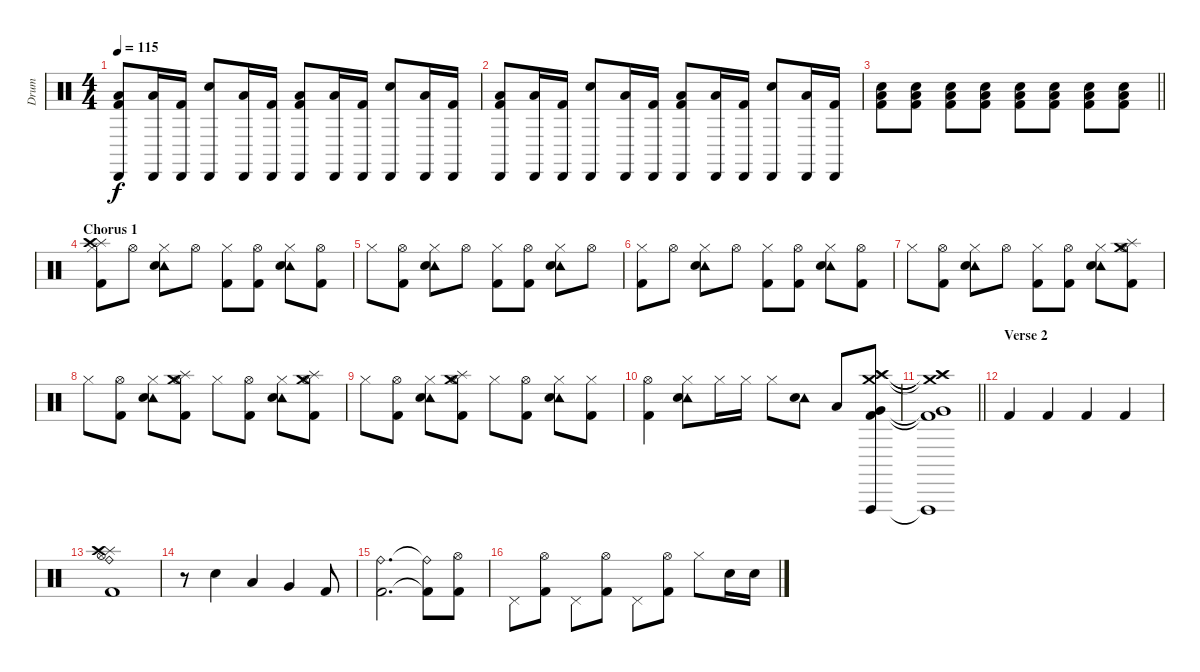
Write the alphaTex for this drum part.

\track ("Drum" "Drum") {instrument percussion}
\staff {score}
\articulation defaults
\ts (4 4)
\tempo 115
\clef neutral
\ks c
("Cabasa (hit)" "Low Tom (hit)" "Kick (hit) 2").8{dy f} ("Cabasa (hit)" "Low Tom (hit)").16 ("Cabasa (hit)" "Kick (hit) 2").16 ("Cabasa (hit)" "Electric Snare (hit)").8 ("Cabasa (hit)" "Low Tom (hit)").16 ("Cabasa (hit)" "Kick (hit) 2").16 ("Cabasa (hit)" "Low Tom (hit)" "Kick (hit) 2").8 ("Cabasa (hit)" "Low Tom (hit)").16 ("Cabasa (hit)" "Kick (hit) 2").16 ("Cabasa (hit)" "Electric Snare (hit)").8 ("Cabasa (hit)" "Low Tom (hit)").16 ("Cabasa (hit)" "Kick (hit) 2").16 |
("Cabasa (hit)" "Low Tom (hit)" "Kick (hit) 2").8 ("Cabasa (hit)" "Low Tom (hit)").16 ("Cabasa (hit)" "Kick (hit) 2").16 ("Cabasa (hit)" "Electric Snare (hit)").8 ("Cabasa (hit)" "Low Tom (hit)").16 ("Cabasa (hit)" "Kick (hit) 2").16 ("Cabasa (hit)" "Low Tom (hit)" "Kick (hit) 2").8 ("Cabasa (hit)" "Low Tom (hit)").16 ("Cabasa (hit)" "Kick (hit) 2").16 ("Cabasa (hit)" "Electric Snare (hit)").8 ("Cabasa (hit)" "Low Tom (hit)").16 ("Cabasa (hit)" "Kick (hit) 2").16 |
\barLineRight lightlight
("Low Tom (hit)" "Electric Snare (hit)" "Kick (hit) 2").8 ("Low Tom (hit)" "Electric Snare (hit)" "Kick (hit) 2").8 ("Low Tom (hit)" "Electric Snare (hit)" "Kick (hit) 2").8 ("Low Tom (hit)" "Electric Snare (hit)" "Kick (hit) 2").8 ("Low Tom (hit)" "Electric Snare (hit)" "Kick (hit) 2").8 ("Low Tom (hit)" "Electric Snare (hit)" "Kick (hit) 2").8 ("Low Tom (hit)" "Electric Snare (hit)" "Kick (hit) 2").8 ("Low Tom (hit)" "Electric Snare (hit)" "Kick (hit) 2").8 |
\section ("" "Chorus 1")
("Hi-Hat (closed)" "Splash (hit)" "Crash high (hit)" "Kick (hit) 2").8 "Hi-Hat (open)".8 ("Hi-Hat (closed)" "Tambourine (hit)" "Electric Snare (hit)").8 "Hi-Hat (open)".8 ("Hi-Hat (closed)" "Kick (hit) 2").8 ("Hi-Hat (open)" "Kick (hit) 2").8 ("Hi-Hat (closed)" "Tambourine (hit)" "Electric Snare (hit)").8 ("Hi-Hat (open)" "Kick (hit) 2").8 |
"Hi-Hat (closed)".8 ("Hi-Hat (open)" "Kick (hit) 2").8 ("Hi-Hat (closed)" "Tambourine (hit)" "Electric Snare (hit)").8 "Hi-Hat (open)".8 ("Hi-Hat (closed)" "Kick (hit) 2").8 ("Hi-Hat (open)" "Kick (hit) 2").8 ("Hi-Hat (closed)" "Tambourine (hit)" "Electric Snare (hit)").8 "Hi-Hat (open)".8 |
("Hi-Hat (closed)" "Kick (hit) 2").8 "Hi-Hat (open)".8 ("Hi-Hat (closed)" "Tambourine (hit)" "Electric Snare (hit)").8 "Hi-Hat (open)".8 ("Hi-Hat (closed)" "Kick (hit) 2").8 ("Hi-Hat (open)" "Kick (hit) 2").8 ("Hi-Hat (closed)" "Tambourine (hit)" "Electric Snare (hit)").8 ("Hi-Hat (open)" "Kick (hit) 2").8 |
"Hi-Hat (closed)".8 ("Hi-Hat (open)" "Kick (hit) 2").8 ("Hi-Hat (closed)" "Tambourine (hit)" "Electric Snare (hit)").8 "Hi-Hat (open)".8 ("Hi-Hat (closed)" "Kick (hit) 2").8 ("Hi-Hat (open)" "Kick (hit) 2").8 ("Hi-Hat (closed)" "Tambourine (hit)" "Electric Snare (hit)").8 ("Hi-Hat (open)" "Crash medium (hit)" "Splash (hit)" "Kick (hit) 2").8 |
"Hi-Hat (closed)".8 ("Hi-Hat (open)" "Kick (hit) 2").8 ("Hi-Hat (closed)" "Tambourine (hit)" "Electric Snare (hit)").8 ("Hi-Hat (open)" "Crash medium (hit)" "Splash (hit)" "Kick (hit) 2").8 "Hi-Hat (closed)".8 ("Hi-Hat (open)" "Kick (hit) 2").8 ("Hi-Hat (closed)" "Tambourine (hit)" "Electric Snare (hit)").8 ("Hi-Hat (open)" "Crash medium (hit)" "Splash (hit)" "Kick (hit) 2").8 |
"Hi-Hat (closed)".8 ("Hi-Hat (open)" "Kick (hit) 2").8 ("Hi-Hat (closed)" "Tambourine (hit)" "Electric Snare (hit)").8 ("Hi-Hat (open)" "Crash medium (hit)" "Splash (hit)" "Kick (hit) 2").8 "Hi-Hat (closed)".8 ("Hi-Hat (open)" "Kick (hit) 2").8 ("Hi-Hat (closed)" "Tambourine (hit)" "Electric Snare (hit)").8 ("Hi-Hat (closed)" "Kick (hit) 2").8 |
("Hi-Hat (open)" "Kick (hit) 2").4 ("Hi-Hat (closed)" "Tambourine (hit)" "Electric Snare (hit)").8 "Hi-Hat (closed)".16 "Hi-Hat (closed)".16 "Hi-Hat (closed)".8 ("Tambourine (hit)" "Electric Snare (hit)").8 "Low Tom (hit)".8 ("Vibraslap (hit)" "Crash medium (hit)" "Crash high (hit)" "Splash (hit)" "Very Low Tom (hit)" "Kick (hit) 2").8 |
\barLineRight lightlight
("Vibraslap (hit)"{t} "Crash medium (hit)"{t} "Crash high (hit)"{t} "Splash (hit)"{t} "Very Low Tom (hit)"{t} "Kick (hit) 2"{t}).1 |
\section ("" "Verse 2")
"Kick (hit) 2".4 "Kick (hit) 2".4 "Kick (hit) 2".4 "Kick (hit) 2".4 |
("Splash (hit)" "Ride (bell)" "Crash high (hit)" "Hi-Hat (open)" "Kick (hit) 2").1 |
r.8 "Electric Snare (hit)".4 "Low Tom (hit)".4 "Very Low Tom (hit)".4 "Kick (hit) 2".8 |
("Ride (bell)" "Kick (hit) 2").2{d} ("Ride (bell)"{t} "Kick (hit) 2"{t}).8 ("Hi-Hat (open)" "Kick (hit) 2").8 |
"Pedal Hi-Hat (hit)".8 ("Hi-Hat (open)" "Kick (hit) 2").8 "Pedal Hi-Hat (hit)".8 ("Hi-Hat (open)" "Kick (hit) 2").8 "Pedal Hi-Hat (hit)".8 ("Hi-Hat (open)" "Kick (hit) 2").8 "Hi-Hat (closed)".8 "Electric Snare (hit)".16 "Electric Snare (hit)".16
